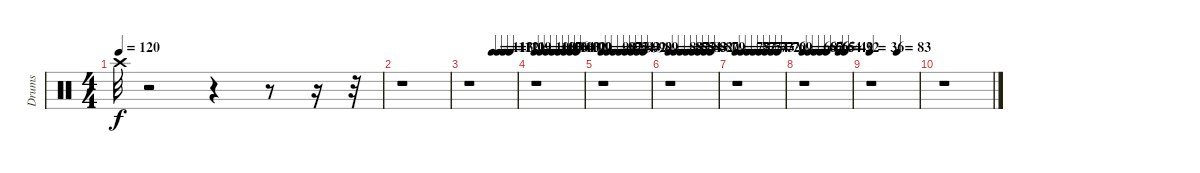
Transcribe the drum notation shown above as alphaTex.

\track ("Drums" "Drums") {instrument percussion}
\staff {score}
\articulation defaults
\ts (4 4)
\tempo 120
\clef neutral
\ks c "Crash high (hit)".32{dy f}
r.2 r.4 r.8 r.16 r.32 |
r.1 |
\tempo (113 0.5)
\tempo (112 0.625)
\tempo (111 0.75)
\tempo (109 0.875)
r.1 |
\tempo 108
\tempo (107 0.125)
\tempo (106 0.25)
\tempo (104 0.375)
\tempo (103 0.5)
\tempo (102 0.625)
\tempo (100 0.75)
\tempo (99 0.875)
r.1 |
\tempo 98
\tempo (97 0.125)
\tempo (95 0.25)
\tempo (94 0.375)
\tempo (93 0.5)
\tempo (92 0.625)
\tempo (90 0.75)
\tempo (89 0.875)
r.1 |
\tempo 88
\tempo (87 0.125)
\tempo (85 0.25)
\tempo (84 0.375)
\tempo (83 0.5)
\tempo (82 0.625)
\tempo (80 0.75)
\tempo (79 0.875)
r.1 |
\tempo 78
\tempo (77 0.125)
\tempo (75 0.25)
\tempo (74 0.375)
\tempo (73 0.5)
\tempo (72 0.625)
\tempo (70 0.75)
\tempo (69 0.875)
r.1 |
\tempo 68
\tempo (67 0.125)
\tempo (66 0.25)
\tempo (65 0.375)
\tempo (64 0.5)
\tempo (49 0.75)
\tempo (32 0.875)
r.1 |
\tempo 36
\tempo (83 0.5625)
r.1 |
r.1
